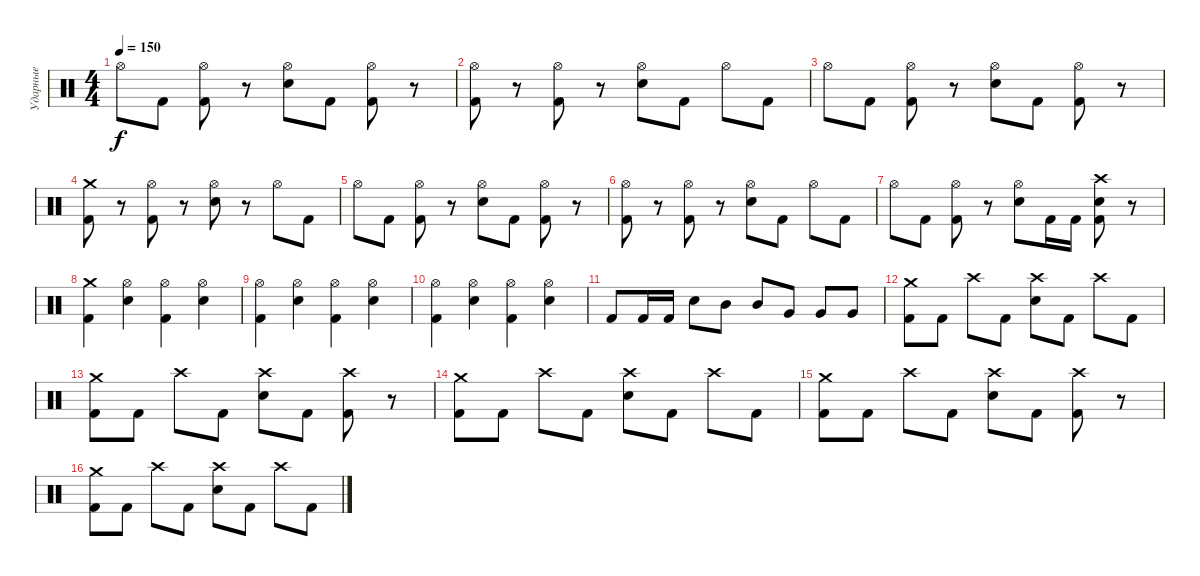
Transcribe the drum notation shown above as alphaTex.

\track ("Ударные" "Ударные") {instrument percussion}
\staff {score}
\articulation defaults
\ts (4 4)
\tempo 150
\clef neutral
\ks c "Hi-Hat (open)".8{dy f} "Kick (hit) 2".8
("Kick (hit) 2" "Hi-Hat (open)").8 r.8 ("Electric Snare (hit)" "Hi-Hat (open)").8 "Kick (hit) 2".8 ("Kick (hit) 2" "Hi-Hat (open)").8 r.8 |
("Kick (hit) 2" "Hi-Hat (open)").8 r.8 ("Kick (hit) 2" "Hi-Hat (open)").8 r.8 ("Electric Snare (hit)" "Hi-Hat (open)").8 "Kick (hit) 2".8 "Hi-Hat (open)".8 "Kick (hit) 2".8 |
"Hi-Hat (open)".8 "Kick (hit) 2".8 ("Kick (hit) 2" "Hi-Hat (open)").8 r.8 ("Electric Snare (hit)" "Hi-Hat (open)").8 "Kick (hit) 2".8 ("Kick (hit) 2" "Hi-Hat (open)").8 r.8 |
("Kick (hit) 2" "Crash medium (hit)").8 r.8 ("Kick (hit) 2" "Hi-Hat (open)").8 r.8 ("Electric Snare (hit)" "Hi-Hat (open)").8 r.8 "Hi-Hat (open)".8 "Kick (hit) 2".8 |
"Hi-Hat (open)".8 "Kick (hit) 2".8 ("Kick (hit) 2" "Hi-Hat (open)").8 r.8 ("Electric Snare (hit)" "Hi-Hat (open)").8 "Kick (hit) 2".8 ("Kick (hit) 2" "Hi-Hat (open)").8 r.8 |
("Kick (hit) 2" "Hi-Hat (open)").8 r.8 ("Kick (hit) 2" "Hi-Hat (open)").8 r.8 ("Electric Snare (hit)" "Hi-Hat (open)").8 "Kick (hit) 2".8 "Hi-Hat (open)".8 "Kick (hit) 2".8 |
"Hi-Hat (open)".8 "Kick (hit) 2".8 ("Kick (hit) 2" "Hi-Hat (open)").8 r.8 ("Electric Snare (hit)" "Hi-Hat (open)").8 "Kick (hit) 2".16 "Kick (hit) 2".16 ("Kick (hit) 2" "Electric Snare (hit)" "Crash high (hit)").8 r.8 |
("Crash medium (hit)" "Kick (hit) 2").4 ("Hi-Hat (open)" "Electric Snare (hit)").4 ("Hi-Hat (open)" "Kick (hit) 2").4 ("Hi-Hat (open)" "Electric Snare (hit)").4 |
("Hi-Hat (open)" "Kick (hit) 2").4 ("Hi-Hat (open)" "Electric Snare (hit)").4 ("Hi-Hat (open)" "Kick (hit) 2").4 ("Hi-Hat (open)" "Electric Snare (hit)").4 |
("Hi-Hat (open)" "Kick (hit) 2").4 ("Hi-Hat (open)" "Electric Snare (hit)").4 ("Hi-Hat (open)" "Kick (hit) 2").4 ("Hi-Hat (open)" "Electric Snare (hit)").4 |
"Kick (hit) 2".8 "Kick (hit) 2".16 "Kick (hit) 2".16 "Electric Snare (hit)".8 "Mid Tom (hit)".8 "Mid Tom (hit)".8 "Very Low Tom (hit)".8 "Very Low Tom (hit)".8 "Very Low Tom (hit)".8 |
("Kick (hit) 2" "Crash medium (hit)").8 "Kick (hit) 2".8 "Crash high (hit)".8 "Kick (hit) 2".8 ("Electric Snare (hit)" "Crash high (hit)").8 "Kick (hit) 2".8 "Crash high (hit)".8 "Kick (hit) 2".8 |
("Kick (hit) 2" "Crash medium (hit)").8 "Kick (hit) 2".8 "Crash high (hit)".8 "Kick (hit) 2".8 ("Electric Snare (hit)" "Crash high (hit)").8 "Kick (hit) 2".8 ("Kick (hit) 2" "Crash high (hit)").8 r.8 |
("Kick (hit) 2" "Crash medium (hit)").8 "Kick (hit) 2".8 "Crash high (hit)".8 "Kick (hit) 2".8 ("Electric Snare (hit)" "Crash high (hit)").8 "Kick (hit) 2".8 "Crash high (hit)".8 "Kick (hit) 2".8 |
("Kick (hit) 2" "Crash medium (hit)").8 "Kick (hit) 2".8 "Crash high (hit)".8 "Kick (hit) 2".8 ("Electric Snare (hit)" "Crash high (hit)").8 "Kick (hit) 2".8 ("Kick (hit) 2" "Crash high (hit)").8 r.8 |
("Kick (hit) 2" "Crash medium (hit)").8 "Kick (hit) 2".8 "Crash high (hit)".8 "Kick (hit) 2".8 ("Electric Snare (hit)" "Crash high (hit)").8 "Kick (hit) 2".8 "Crash high (hit)".8 "Kick (hit) 2".8
